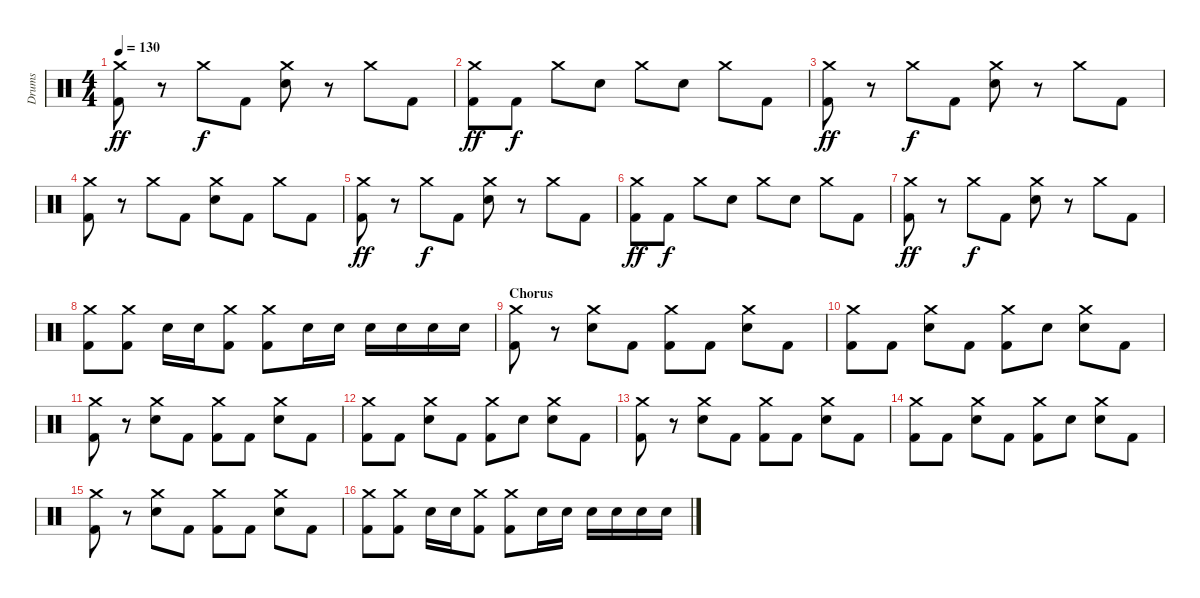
\track ("Drums" "Drums") {instrument percussion}
\staff {score}
\articulation defaults
\ts (4 4)
\tempo 130
\clef neutral
\ks c
("Crash medium (hit)" "Kick (hit) 2").8{dy ff} r.8 "Crash medium (hit)".8{dy f} "Kick (hit) 2".8 ("Crash medium (hit)" "Electric Snare (hit)").8 r.8 "Crash medium (hit)".8 "Kick (hit) 2".8 |
("Crash medium (hit)" "Kick (hit) 2").8{dy ff} "Kick (hit) 2".8{dy f} "Crash medium (hit)".8 "Electric Snare (hit)".8 "Crash medium (hit)".8 "Electric Snare (hit)".8 "Crash medium (hit)".8 "Kick (hit) 2".8 |
("Crash medium (hit)" "Kick (hit) 2").8{dy ff} r.8 "Crash medium (hit)".8{dy f} "Kick (hit) 2".8 ("Crash medium (hit)" "Electric Snare (hit)").8 r.8 "Crash medium (hit)".8 "Kick (hit) 2".8 |
("Crash medium (hit)" "Kick (hit) 2").8 r.8 "Crash medium (hit)".8 "Kick (hit) 2".8 ("Crash medium (hit)" "Electric Snare (hit)").8 "Kick (hit) 2".8 "Crash medium (hit)".8 "Kick (hit) 2".8 |
("Crash medium (hit)" "Kick (hit) 2").8{dy ff} r.8 "Crash medium (hit)".8{dy f} "Kick (hit) 2".8 ("Crash medium (hit)" "Electric Snare (hit)").8 r.8 "Crash medium (hit)".8 "Kick (hit) 2".8 |
("Crash medium (hit)" "Kick (hit) 2").8{dy ff} "Kick (hit) 2".8{dy f} "Crash medium (hit)".8 "Electric Snare (hit)".8 "Crash medium (hit)".8 "Electric Snare (hit)".8 "Crash medium (hit)".8 "Kick (hit) 2".8 |
("Crash medium (hit)" "Kick (hit) 2").8{dy ff} r.8 "Crash medium (hit)".8{dy f} "Kick (hit) 2".8 ("Crash medium (hit)" "Electric Snare (hit)").8 r.8 "Crash medium (hit)".8 "Kick (hit) 2".8 |
("Crash medium (hit)" "Kick (hit) 2").8 ("Crash medium (hit)" "Kick (hit) 2").8 "Electric Snare (hit)".16 "Electric Snare (hit)".16 ("Crash medium (hit)" "Kick (hit) 2").8 ("Crash medium (hit)" "Kick (hit) 2").8 "Electric Snare (hit)".16 "Electric Snare (hit)".16 "Electric Snare (hit)".16 "Electric Snare (hit)".16 "Electric Snare (hit)".16 "Electric Snare (hit)".16 |
\section ("" "Chorus")
("Crash medium (hit)" "Kick (hit) 2").8 r.8 ("Crash medium (hit)" "Electric Snare (hit)").8 "Kick (hit) 2".8 ("Crash medium (hit)" "Kick (hit) 2").8 "Kick (hit) 2".8 ("Crash medium (hit)" "Electric Snare (hit)").8 "Kick (hit) 2".8 |
("Crash medium (hit)" "Kick (hit) 2").8 "Kick (hit) 2".8 ("Crash medium (hit)" "Electric Snare (hit)").8 "Kick (hit) 2".8 ("Crash medium (hit)" "Kick (hit) 2").8 "Electric Snare (hit)".8 ("Crash medium (hit)" "Electric Snare (hit)").8 "Kick (hit) 2".8 |
("Crash medium (hit)" "Kick (hit) 2").8 r.8 ("Crash medium (hit)" "Electric Snare (hit)").8 "Kick (hit) 2".8 ("Crash medium (hit)" "Kick (hit) 2").8 "Kick (hit) 2".8 ("Crash medium (hit)" "Electric Snare (hit)").8 "Kick (hit) 2".8 |
("Crash medium (hit)" "Kick (hit) 2").8 "Kick (hit) 2".8 ("Crash medium (hit)" "Electric Snare (hit)").8 "Kick (hit) 2".8 ("Crash medium (hit)" "Kick (hit) 2").8 "Electric Snare (hit)".8 ("Crash medium (hit)" "Electric Snare (hit)").8 "Kick (hit) 2".8 |
("Crash medium (hit)" "Kick (hit) 2").8 r.8 ("Crash medium (hit)" "Electric Snare (hit)").8 "Kick (hit) 2".8 ("Crash medium (hit)" "Kick (hit) 2").8 "Kick (hit) 2".8 ("Crash medium (hit)" "Electric Snare (hit)").8 "Kick (hit) 2".8 |
("Crash medium (hit)" "Kick (hit) 2").8 "Kick (hit) 2".8 ("Crash medium (hit)" "Electric Snare (hit)").8 "Kick (hit) 2".8 ("Crash medium (hit)" "Kick (hit) 2").8 "Electric Snare (hit)".8 ("Crash medium (hit)" "Electric Snare (hit)").8 "Kick (hit) 2".8 |
("Crash medium (hit)" "Kick (hit) 2").8 r.8 ("Crash medium (hit)" "Electric Snare (hit)").8 "Kick (hit) 2".8 ("Crash medium (hit)" "Kick (hit) 2").8 "Kick (hit) 2".8 ("Crash medium (hit)" "Electric Snare (hit)").8 "Kick (hit) 2".8 |
("Crash medium (hit)" "Kick (hit) 2").8 ("Crash medium (hit)" "Kick (hit) 2").8 "Electric Snare (hit)".16 "Electric Snare (hit)".16 ("Crash medium (hit)" "Kick (hit) 2").8 ("Crash medium (hit)" "Kick (hit) 2").8 "Electric Snare (hit)".16 "Electric Snare (hit)".16 "Electric Snare (hit)".16 "Electric Snare (hit)".16 "Electric Snare (hit)".16 "Electric Snare (hit)".16
